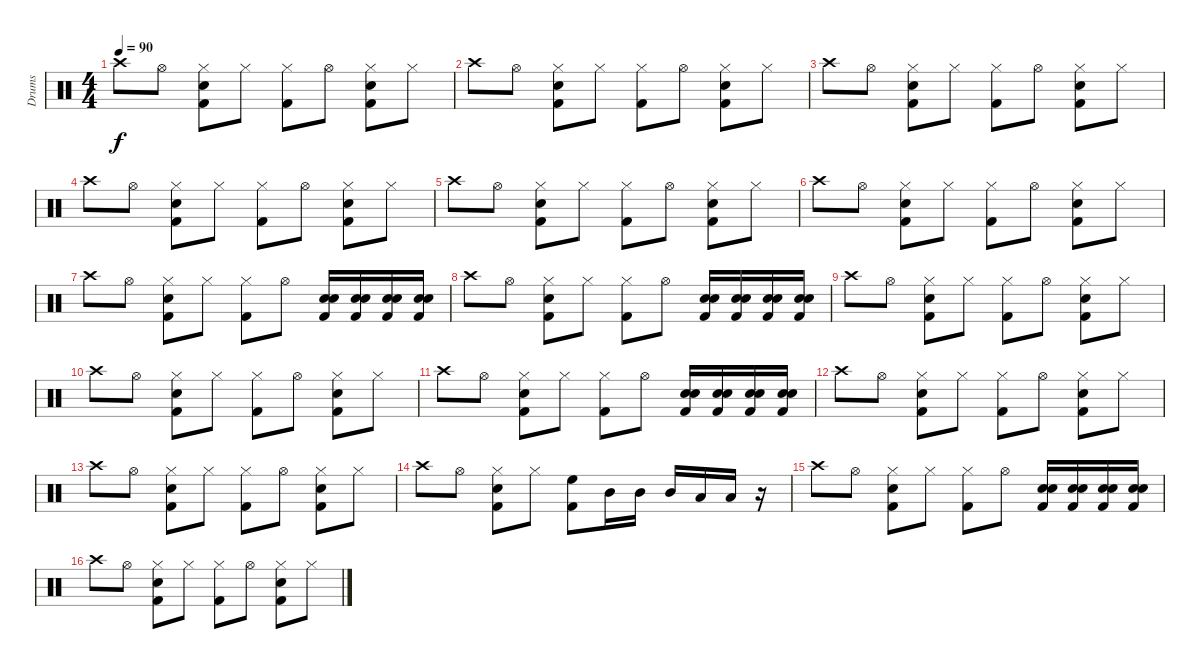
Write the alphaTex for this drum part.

\track ("Drums" "Drums") {instrument percussion}
\staff {score}
\articulation defaults
\ts (4 4)
\tempo 90
\clef neutral
\ks c "Crash high (hit)".8{dy f} "Hi-Hat (open)".8
("Kick (hit) 2" "Snare (hit) 2" "Hi-Hat (closed)").8 "Hi-Hat (closed)".8 ("Kick (hit) 2" "Hi-Hat (closed)").8 "Hi-Hat (open)".8 ("Kick (hit) 2" "Snare (hit) 2" "Hi-Hat (closed)").8 "Hi-Hat (closed)".8 |
"Crash high (hit)".8 "Hi-Hat (open)".8 ("Kick (hit) 2" "Snare (hit) 2" "Hi-Hat (closed)").8 "Hi-Hat (closed)".8 ("Kick (hit) 2" "Hi-Hat (closed)").8 "Hi-Hat (open)".8 ("Kick (hit) 2" "Snare (hit) 2" "Hi-Hat (closed)").8 "Hi-Hat (closed)".8 |
"Crash high (hit)".8 "Hi-Hat (open)".8 ("Kick (hit) 2" "Snare (hit) 2" "Hi-Hat (closed)").8 "Hi-Hat (closed)".8 ("Kick (hit) 2" "Hi-Hat (closed)").8 "Hi-Hat (open)".8 ("Kick (hit) 2" "Snare (hit) 2" "Hi-Hat (closed)").8 "Hi-Hat (closed)".8 |
"Crash high (hit)".8 "Hi-Hat (open)".8 ("Kick (hit) 2" "Snare (hit) 2" "Hi-Hat (closed)").8 "Hi-Hat (closed)".8 ("Kick (hit) 2" "Hi-Hat (closed)").8 "Hi-Hat (open)".8 ("Kick (hit) 2" "Snare (hit) 2" "Hi-Hat (closed)").8 "Hi-Hat (closed)".8 |
"Crash high (hit)".8 "Hi-Hat (open)".8 ("Kick (hit) 2" "Snare (hit) 2" "Hi-Hat (closed)").8 "Hi-Hat (closed)".8 ("Kick (hit) 2" "Hi-Hat (closed)").8 "Hi-Hat (open)".8 ("Kick (hit) 2" "Snare (hit) 2" "Hi-Hat (closed)").8 "Hi-Hat (closed)".8 |
"Crash high (hit)".8 "Hi-Hat (open)".8 ("Kick (hit) 2" "Snare (hit) 2" "Hi-Hat (closed)").8 "Hi-Hat (closed)".8 ("Kick (hit) 2" "Hi-Hat (closed)").8 "Hi-Hat (open)".8 ("Kick (hit) 2" "Snare (hit) 2" "Hi-Hat (closed)").8 "Hi-Hat (closed)".8 |
"Crash high (hit)".8 "Hi-Hat (open)".8 ("Kick (hit) 2" "Snare (hit) 2" "Hi-Hat (closed)").8 "Hi-Hat (closed)".8 ("Kick (hit) 2" "Hi-Hat (closed)").8 "Hi-Hat (open)".8 ("Snare (hit) 2" "Kick (hit) 2" "Snare (hit) 2").16 ("Snare (hit) 2" "Kick (hit) 2" "Snare (hit) 2").16 ("Snare (hit) 2" "Kick (hit) 2" "Snare (hit) 2").16 ("Snare (hit) 2" "Kick (hit) 2" "Snare (hit) 2").16 |
"Crash high (hit)".8 "Hi-Hat (open)".8 ("Kick (hit) 2" "Snare (hit) 2" "Hi-Hat (closed)").8 "Hi-Hat (closed)".8 ("Kick (hit) 2" "Hi-Hat (closed)").8 "Hi-Hat (open)".8 ("Snare (hit) 2" "Kick (hit) 2" "Snare (hit) 2").16 ("Snare (hit) 2" "Kick (hit) 2" "Snare (hit) 2").16 ("Snare (hit) 2" "Kick (hit) 2" "Snare (hit) 2").16 ("Snare (hit) 2" "Kick (hit) 2" "Snare (hit) 2").16 |
"Crash high (hit)".8 "Hi-Hat (open)".8 ("Kick (hit) 2" "Snare (hit) 2" "Hi-Hat (closed)").8 "Hi-Hat (closed)".8 ("Kick (hit) 2" "Hi-Hat (closed)").8 "Hi-Hat (open)".8 ("Kick (hit) 2" "Snare (hit) 2" "Hi-Hat (closed)").8 "Hi-Hat (closed)".8 |
"Crash high (hit)".8 "Hi-Hat (open)".8 ("Kick (hit) 2" "Snare (hit) 2" "Hi-Hat (closed)").8 "Hi-Hat (closed)".8 ("Kick (hit) 2" "Hi-Hat (closed)").8 "Hi-Hat (open)".8 ("Kick (hit) 2" "Snare (hit) 2" "Hi-Hat (closed)").8 "Hi-Hat (closed)".8 |
"Crash high (hit)".8 "Hi-Hat (open)".8 ("Kick (hit) 2" "Snare (hit) 2" "Hi-Hat (closed)").8 "Hi-Hat (closed)".8 ("Kick (hit) 2" "Hi-Hat (closed)").8 "Hi-Hat (open)".8 ("Snare (hit) 2" "Kick (hit) 2" "Snare (hit) 2").16 ("Snare (hit) 2" "Kick (hit) 2" "Snare (hit) 2").16 ("Snare (hit) 2" "Kick (hit) 2" "Snare (hit) 2").16 ("Snare (hit) 2" "Kick (hit) 2" "Snare (hit) 2").16 |
"Crash high (hit)".8 "Hi-Hat (open)".8 ("Kick (hit) 2" "Snare (hit) 2" "Hi-Hat (closed)").8 "Hi-Hat (closed)".8 ("Kick (hit) 2" "Hi-Hat (closed)").8 "Hi-Hat (open)".8 ("Kick (hit) 2" "Snare (hit) 2" "Hi-Hat (closed)").8 "Hi-Hat (closed)".8 |
"Crash high (hit)".8 "Hi-Hat (open)".8 ("Kick (hit) 2" "Snare (hit) 2" "Hi-Hat (closed)").8 "Hi-Hat (closed)".8 ("Kick (hit) 2" "Hi-Hat (closed)").8 "Hi-Hat (open)".8 ("Kick (hit) 2" "Snare (hit) 2" "Hi-Hat (closed)").8 "Hi-Hat (closed)".8 |
"Crash high (hit)".8 "Hi-Hat (open)".8 ("Kick (hit) 2" "Snare (hit) 2" "Hi-Hat (closed)").8 "Hi-Hat (closed)".8 ("Kick (hit) 2" "High Floor Tom (hit)").8 "Mid Tom (hit)".16 "Mid Tom (hit)".16 "Mid Tom (hit)".16 "Low Tom (hit)".16 "Low Tom (hit)".16 r.16 |
"Crash high (hit)".8 "Hi-Hat (open)".8 ("Kick (hit) 2" "Snare (hit) 2" "Hi-Hat (closed)").8 "Hi-Hat (closed)".8 ("Kick (hit) 2" "Hi-Hat (closed)").8 "Hi-Hat (open)".8 ("Snare (hit) 2" "Kick (hit) 2" "Snare (hit) 2").16 ("Snare (hit) 2" "Kick (hit) 2" "Snare (hit) 2").16 ("Snare (hit) 2" "Kick (hit) 2" "Snare (hit) 2").16 ("Snare (hit) 2" "Kick (hit) 2" "Snare (hit) 2").16 |
"Crash high (hit)".8 "Hi-Hat (open)".8 ("Kick (hit) 2" "Snare (hit) 2" "Hi-Hat (closed)").8 "Hi-Hat (closed)".8 ("Kick (hit) 2" "Hi-Hat (closed)").8 "Hi-Hat (open)".8 ("Kick (hit) 2" "Snare (hit) 2" "Hi-Hat (closed)").8 "Hi-Hat (closed)".8
